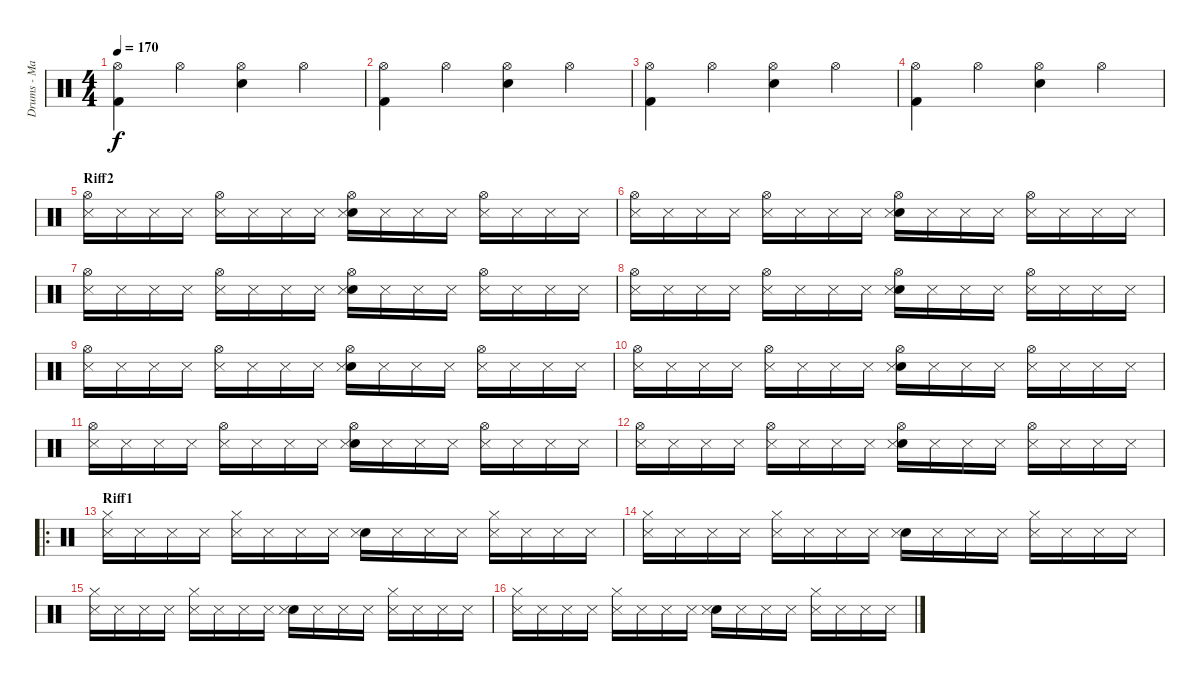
\track ("Drums - Mattias Grahn" "Drums - Ma") {instrument percussion}
\staff {score}
\articulation defaults
\ts (4 4)
\tempo 170
\clef neutral
\ks c
("Hi-Hat (open)" "Kick (hit) 2").4{dy f} "Hi-Hat (open)".4 ("Hi-Hat (open)" "Snare (hit) 2").4 "Hi-Hat (open)".4 |
("Hi-Hat (open)" "Kick (hit) 2").4 "Hi-Hat (open)".4 ("Hi-Hat (open)" "Snare (hit) 2").4 "Hi-Hat (open)".4 |
("Hi-Hat (open)" "Kick (hit) 2").4 "Hi-Hat (open)".4 ("Hi-Hat (open)" "Snare (hit) 2").4 "Hi-Hat (open)".4 |
("Hi-Hat (open)" "Kick (hit) 2").4 "Hi-Hat (open)".4 ("Hi-Hat (open)" "Snare (hit) 2").4 "Hi-Hat (open)".4 |
\section ("" "Riff2")
("Hi-Hat (open)" "Snare (side stick) 3").16 "Snare (side stick) 3".16 "Snare (side stick) 3".16 "Snare (side stick) 3".16 ("Hi-Hat (open)" "Snare (side stick) 3").16 "Snare (side stick) 3".16 "Snare (side stick) 3".16 "Snare (side stick) 3".16 ("Electric Snare (hit)" "Hi-Hat (open)" "Snare (side stick) 3").16 "Snare (side stick) 3".16 "Snare (side stick) 3".16 "Snare (side stick) 3".16 ("Hi-Hat (open)" "Snare (side stick) 3").16 "Snare (side stick) 3".16 "Snare (side stick) 3".16 "Snare (side stick) 3".16 |
("Hi-Hat (open)" "Snare (side stick) 3").16 "Snare (side stick) 3".16 "Snare (side stick) 3".16 "Snare (side stick) 3".16 ("Hi-Hat (open)" "Snare (side stick) 3").16 "Snare (side stick) 3".16 "Snare (side stick) 3".16 "Snare (side stick) 3".16 ("Electric Snare (hit)" "Hi-Hat (open)" "Snare (side stick) 3").16 "Snare (side stick) 3".16 "Snare (side stick) 3".16 "Snare (side stick) 3".16 ("Hi-Hat (open)" "Snare (side stick) 3").16 "Snare (side stick) 3".16 "Snare (side stick) 3".16 "Snare (side stick) 3".16 |
("Hi-Hat (open)" "Snare (side stick) 3").16 "Snare (side stick) 3".16 "Snare (side stick) 3".16 "Snare (side stick) 3".16 ("Hi-Hat (open)" "Snare (side stick) 3").16 "Snare (side stick) 3".16 "Snare (side stick) 3".16 "Snare (side stick) 3".16 ("Electric Snare (hit)" "Hi-Hat (open)" "Snare (side stick) 3").16 "Snare (side stick) 3".16 "Snare (side stick) 3".16 "Snare (side stick) 3".16 ("Hi-Hat (open)" "Snare (side stick) 3").16 "Snare (side stick) 3".16 "Snare (side stick) 3".16 "Snare (side stick) 3".16 |
("Hi-Hat (open)" "Snare (side stick) 3").16 "Snare (side stick) 3".16 "Snare (side stick) 3".16 "Snare (side stick) 3".16 ("Hi-Hat (open)" "Snare (side stick) 3").16 "Snare (side stick) 3".16 "Snare (side stick) 3".16 "Snare (side stick) 3".16 ("Electric Snare (hit)" "Hi-Hat (open)" "Snare (side stick) 3").16 "Snare (side stick) 3".16 "Snare (side stick) 3".16 "Snare (side stick) 3".16 ("Hi-Hat (open)" "Snare (side stick) 3").16 "Snare (side stick) 3".16 "Snare (side stick) 3".16 "Snare (side stick) 3".16 |
("Hi-Hat (open)" "Snare (side stick) 3").16 "Snare (side stick) 3".16 "Snare (side stick) 3".16 "Snare (side stick) 3".16 ("Hi-Hat (open)" "Snare (side stick) 3").16 "Snare (side stick) 3".16 "Snare (side stick) 3".16 "Snare (side stick) 3".16 ("Electric Snare (hit)" "Hi-Hat (open)" "Snare (side stick) 3").16 "Snare (side stick) 3".16 "Snare (side stick) 3".16 "Snare (side stick) 3".16 ("Hi-Hat (open)" "Snare (side stick) 3").16 "Snare (side stick) 3".16 "Snare (side stick) 3".16 "Snare (side stick) 3".16 |
("Hi-Hat (open)" "Snare (side stick) 3").16 "Snare (side stick) 3".16 "Snare (side stick) 3".16 "Snare (side stick) 3".16 ("Hi-Hat (open)" "Snare (side stick) 3").16 "Snare (side stick) 3".16 "Snare (side stick) 3".16 "Snare (side stick) 3".16 ("Electric Snare (hit)" "Hi-Hat (open)" "Snare (side stick) 3").16 "Snare (side stick) 3".16 "Snare (side stick) 3".16 "Snare (side stick) 3".16 ("Hi-Hat (open)" "Snare (side stick) 3").16 "Snare (side stick) 3".16 "Snare (side stick) 3".16 "Snare (side stick) 3".16 |
("Hi-Hat (open)" "Snare (side stick) 3").16 "Snare (side stick) 3".16 "Snare (side stick) 3".16 "Snare (side stick) 3".16 ("Hi-Hat (open)" "Snare (side stick) 3").16 "Snare (side stick) 3".16 "Snare (side stick) 3".16 "Snare (side stick) 3".16 ("Electric Snare (hit)" "Hi-Hat (open)" "Snare (side stick) 3").16 "Snare (side stick) 3".16 "Snare (side stick) 3".16 "Snare (side stick) 3".16 ("Hi-Hat (open)" "Snare (side stick) 3").16 "Snare (side stick) 3".16 "Snare (side stick) 3".16 "Snare (side stick) 3".16 |
("Hi-Hat (open)" "Snare (side stick) 3").16 "Snare (side stick) 3".16 "Snare (side stick) 3".16 "Snare (side stick) 3".16 ("Hi-Hat (open)" "Snare (side stick) 3").16 "Snare (side stick) 3".16 "Snare (side stick) 3".16 "Snare (side stick) 3".16 ("Electric Snare (hit)" "Hi-Hat (open)" "Snare (side stick) 3").16 "Snare (side stick) 3".16 "Snare (side stick) 3".16 "Snare (side stick) 3".16 ("Hi-Hat (open)" "Snare (side stick) 3").16 "Snare (side stick) 3".16 "Snare (side stick) 3".16 "Snare (side stick) 3".16 |
\ro
\section ("" "Riff1")
("Hi-Hat (closed)" "Snare (side stick) 3").16 "Snare (side stick) 3".16 "Snare (side stick) 3".16 "Snare (side stick) 3".16 ("Hi-Hat (closed)" "Snare (side stick) 3").16 "Snare (side stick) 3".16 "Snare (side stick) 3".16 "Snare (side stick) 3".16 ("Electric Snare (hit)" "Snare (side stick) 3").16 "Snare (side stick) 3".16 "Snare (side stick) 3".16 "Snare (side stick) 3".16 ("Hi-Hat (closed)" "Snare (side stick) 3").16 "Snare (side stick) 3".16 "Snare (side stick) 3".16 "Snare (side stick) 3".16 |
("Hi-Hat (closed)" "Snare (side stick) 3").16 "Snare (side stick) 3".16 "Snare (side stick) 3".16 "Snare (side stick) 3".16 ("Hi-Hat (closed)" "Snare (side stick) 3").16 "Snare (side stick) 3".16 "Snare (side stick) 3".16 "Snare (side stick) 3".16 ("Electric Snare (hit)" "Snare (side stick) 3").16 "Snare (side stick) 3".16 "Snare (side stick) 3".16 "Snare (side stick) 3".16 ("Hi-Hat (closed)" "Snare (side stick) 3").16 "Snare (side stick) 3".16 "Snare (side stick) 3".16 "Snare (side stick) 3".16 |
("Hi-Hat (closed)" "Snare (side stick) 3").16 "Snare (side stick) 3".16 "Snare (side stick) 3".16 "Snare (side stick) 3".16 ("Hi-Hat (closed)" "Snare (side stick) 3").16 "Snare (side stick) 3".16 "Snare (side stick) 3".16 "Snare (side stick) 3".16 ("Electric Snare (hit)" "Snare (side stick) 3").16 "Snare (side stick) 3".16 "Snare (side stick) 3".16 "Snare (side stick) 3".16 ("Hi-Hat (closed)" "Snare (side stick) 3").16 "Snare (side stick) 3".16 "Snare (side stick) 3".16 "Snare (side stick) 3".16 |
("Hi-Hat (closed)" "Snare (side stick) 3").16 "Snare (side stick) 3".16 "Snare (side stick) 3".16 "Snare (side stick) 3".16 ("Hi-Hat (closed)" "Snare (side stick) 3").16 "Snare (side stick) 3".16 "Snare (side stick) 3".16 "Snare (side stick) 3".16 ("Electric Snare (hit)" "Snare (side stick) 3").16 "Snare (side stick) 3".16 "Snare (side stick) 3".16 "Snare (side stick) 3".16 ("Hi-Hat (closed)" "Snare (side stick) 3").16 "Snare (side stick) 3".16 "Snare (side stick) 3".16 "Snare (side stick) 3".16
